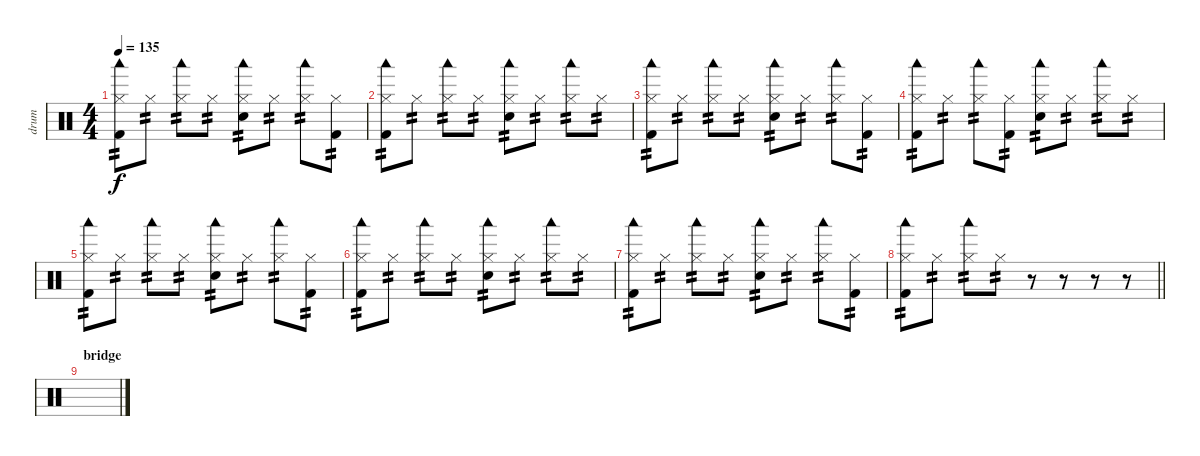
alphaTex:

\track ("drum" "drum") {instrument percussion}
\staff {score}
\articulation defaults
\ts (4 4)
\tempo 135
\clef neutral
\ks c
("Hi-Hat (closed)" "Woodblock low (hit)" "Kick (hit) 2").8{tp 2 dy f} "Hi-Hat (closed)".8{tp 2} ("Hi-Hat (closed)" "Woodblock low (hit)").8{tp 2} "Hi-Hat (closed)".8{tp 2} ("Hi-Hat (closed)" "Woodblock low (hit)" "Snare (hit) 2").8{tp 2} "Hi-Hat (closed)".8{tp 2} ("Hi-Hat (closed)" "Woodblock low (hit)").8{tp 2} ("Hi-Hat (closed)" "Kick (hit) 2").8{tp 2} |
("Hi-Hat (closed)" "Woodblock low (hit)" "Kick (hit) 2").8{tp 2} "Hi-Hat (closed)".8{tp 2} ("Hi-Hat (closed)" "Woodblock low (hit)").8{tp 2} "Hi-Hat (closed)".8{tp 2} ("Hi-Hat (closed)" "Woodblock low (hit)" "Snare (hit) 2").8{tp 2} "Hi-Hat (closed)".8{tp 2} ("Hi-Hat (closed)" "Woodblock low (hit)").8{tp 2} "Hi-Hat (closed)".8{tp 2} |
("Hi-Hat (closed)" "Woodblock low (hit)" "Kick (hit) 2").8{tp 2} "Hi-Hat (closed)".8{tp 2} ("Hi-Hat (closed)" "Woodblock low (hit)").8{tp 2} "Hi-Hat (closed)".8{tp 2} ("Hi-Hat (closed)" "Woodblock low (hit)" "Snare (hit) 2").8{tp 2} "Hi-Hat (closed)".8{tp 2} ("Hi-Hat (closed)" "Woodblock low (hit)").8{tp 2} ("Hi-Hat (closed)" "Kick (hit) 2").8{tp 2} |
("Hi-Hat (closed)" "Woodblock low (hit)" "Kick (hit) 2").8{tp 2} "Hi-Hat (closed)".8{tp 2} ("Hi-Hat (closed)" "Woodblock low (hit)").8{tp 2} ("Hi-Hat (closed)" "Kick (hit) 2").8{tp 2} ("Hi-Hat (closed)" "Woodblock low (hit)" "Snare (hit) 2").8{tp 2} "Hi-Hat (closed)".8{tp 2} ("Hi-Hat (closed)" "Woodblock low (hit)").8{tp 2} "Hi-Hat (closed)".8{tp 2} |
("Hi-Hat (closed)" "Woodblock low (hit)" "Kick (hit) 2").8{tp 2} "Hi-Hat (closed)".8{tp 2} ("Hi-Hat (closed)" "Woodblock low (hit)").8{tp 2} "Hi-Hat (closed)".8{tp 2} ("Hi-Hat (closed)" "Woodblock low (hit)" "Snare (hit) 2").8{tp 2} "Hi-Hat (closed)".8{tp 2} ("Hi-Hat (closed)" "Woodblock low (hit)").8{tp 2} ("Hi-Hat (closed)" "Kick (hit) 2").8{tp 2} |
("Hi-Hat (closed)" "Woodblock low (hit)" "Kick (hit) 2").8{tp 2} "Hi-Hat (closed)".8{tp 2} ("Hi-Hat (closed)" "Woodblock low (hit)").8{tp 2} "Hi-Hat (closed)".8{tp 2} ("Hi-Hat (closed)" "Woodblock low (hit)" "Snare (hit) 2").8{tp 2} "Hi-Hat (closed)".8{tp 2} ("Hi-Hat (closed)" "Woodblock low (hit)").8{tp 2} "Hi-Hat (closed)".8{tp 2} |
("Hi-Hat (closed)" "Woodblock low (hit)" "Kick (hit) 2").8{tp 2} "Hi-Hat (closed)".8{tp 2} ("Hi-Hat (closed)" "Woodblock low (hit)").8{tp 2} "Hi-Hat (closed)".8{tp 2} ("Hi-Hat (closed)" "Woodblock low (hit)" "Snare (hit) 2").8{tp 2} "Hi-Hat (closed)".8{tp 2} ("Hi-Hat (closed)" "Woodblock low (hit)").8{tp 2} ("Hi-Hat (closed)" "Kick (hit) 2").8{tp 2} |
\barLineRight lightlight
("Hi-Hat (closed)" "Woodblock low (hit)" "Kick (hit) 2").8{tp 2} "Hi-Hat (closed)".8{tp 2} ("Hi-Hat (closed)" "Woodblock low (hit)").8{tp 2} "Hi-Hat (closed)".8{tp 2} r.8 r.8 r.8 r.8 |
\section ("" "bridge")
